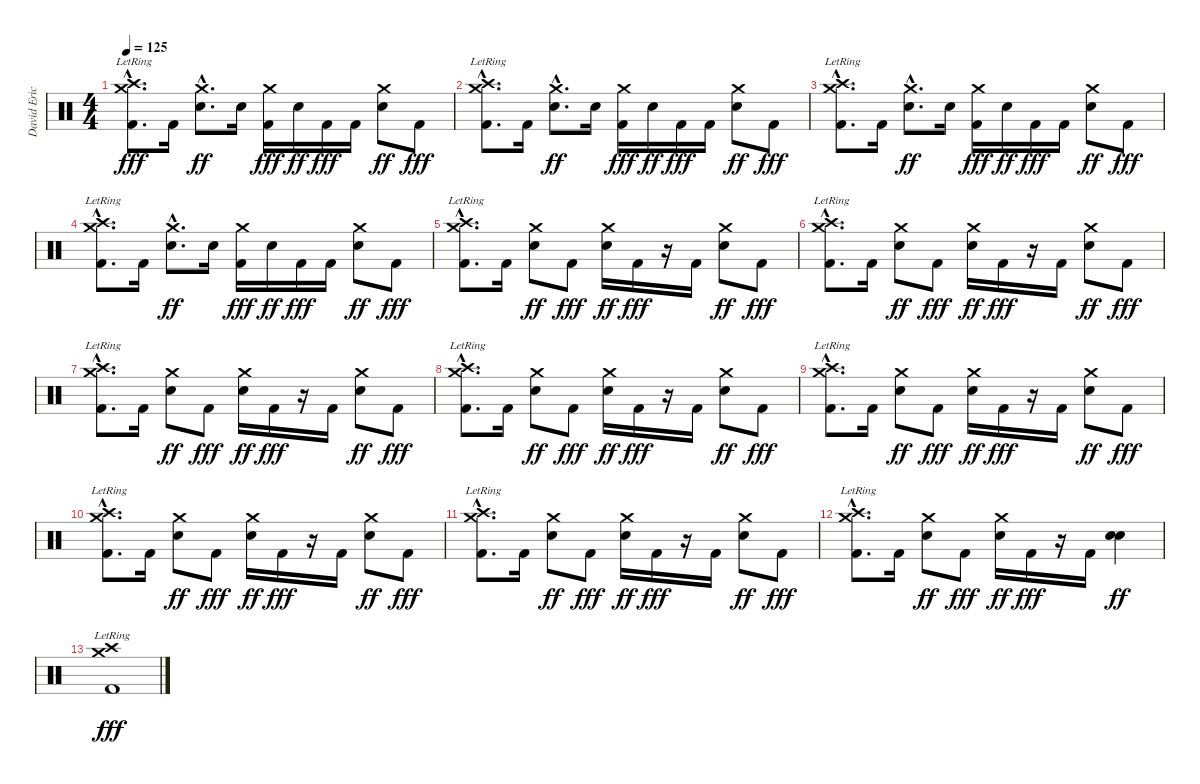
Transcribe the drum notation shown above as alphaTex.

\track ("David Eric Grohl" "David Eric") {instrument percussion}
\staff {score}
\articulation defaults
\ts (4 4)
\tempo 125
\clef neutral
\ks c
("Crash medium (hit)"{hac lr} "Crash high (hit)"{hac lr} "Kick (hit) 2"{hac}).8{d dy fff} "Kick (hit) 2".16 ("Crash medium (hit)"{hac} "Electric Snare (hit)"{hac}).8{d dy ff} "Electric Snare (hit)".16 ("Crash medium (hit)" "Kick (hit) 2").16{dy fff} "Electric Snare (hit)".16{dy ff} "Kick (hit) 2".16{dy fff} "Kick (hit) 2".16 ("Crash medium (hit)" "Electric Snare (hit)").8{dy ff} "Kick (hit) 2".8{dy fff} |
("Crash medium (hit)"{hac lr} "Crash high (hit)"{hac lr} "Kick (hit) 2"{hac}).8{d} "Kick (hit) 2".16 ("Crash medium (hit)"{hac} "Electric Snare (hit)"{hac}).8{d dy ff} "Electric Snare (hit)".16 ("Crash medium (hit)" "Kick (hit) 2").16{dy fff} "Electric Snare (hit)".16{dy ff} "Kick (hit) 2".16{dy fff} "Kick (hit) 2".16 ("Crash medium (hit)" "Electric Snare (hit)").8{dy ff} "Kick (hit) 2".8{dy fff} |
("Crash medium (hit)"{hac lr} "Crash high (hit)"{hac lr} "Kick (hit) 2"{hac}).8{d} "Kick (hit) 2".16 ("Crash medium (hit)"{hac} "Electric Snare (hit)"{hac}).8{d dy ff} "Electric Snare (hit)".16 ("Crash medium (hit)" "Kick (hit) 2").16{dy fff} "Electric Snare (hit)".16{dy ff} "Kick (hit) 2".16{dy fff} "Kick (hit) 2".16 ("Crash medium (hit)" "Electric Snare (hit)").8{dy ff} "Kick (hit) 2".8{dy fff} |
("Crash medium (hit)"{hac lr} "Crash high (hit)"{hac lr} "Kick (hit) 2"{hac}).8{d} "Kick (hit) 2".16 ("Crash medium (hit)"{hac} "Electric Snare (hit)"{hac}).8{d dy ff} "Electric Snare (hit)".16 ("Crash medium (hit)" "Kick (hit) 2").16{dy fff} "Electric Snare (hit)".16{dy ff} "Kick (hit) 2".16{dy fff} "Kick (hit) 2".16 ("Crash medium (hit)" "Electric Snare (hit)").8{dy ff} "Kick (hit) 2".8{dy fff} |
("Crash medium (hit)"{hac lr} "Crash high (hit)"{hac lr} "Kick (hit) 2"{hac}).8{d} "Kick (hit) 2".16 ("Crash medium (hit)" "Electric Snare (hit)").8{dy ff} "Kick (hit) 2".8{dy fff} ("Crash medium (hit)" "Electric Snare (hit)").16{dy ff} "Kick (hit) 2".16{dy fff} r.16 "Kick (hit) 2".16 ("Crash medium (hit)" "Electric Snare (hit)").8{dy ff} "Kick (hit) 2".8{dy fff} |
("Crash medium (hit)"{hac lr} "Crash high (hit)"{hac lr} "Kick (hit) 2"{hac}).8{d} "Kick (hit) 2".16 ("Crash medium (hit)" "Electric Snare (hit)").8{dy ff} "Kick (hit) 2".8{dy fff} ("Crash medium (hit)" "Electric Snare (hit)").16{dy ff} "Kick (hit) 2".16{dy fff} r.16 "Kick (hit) 2".16 ("Crash medium (hit)" "Electric Snare (hit)").8{dy ff} "Kick (hit) 2".8{dy fff} |
("Crash medium (hit)"{hac lr} "Crash high (hit)"{hac lr} "Kick (hit) 2"{hac}).8{d} "Kick (hit) 2".16 ("Crash medium (hit)" "Electric Snare (hit)").8{dy ff} "Kick (hit) 2".8{dy fff} ("Crash medium (hit)" "Electric Snare (hit)").16{dy ff} "Kick (hit) 2".16{dy fff} r.16 "Kick (hit) 2".16 ("Crash medium (hit)" "Electric Snare (hit)").8{dy ff} "Kick (hit) 2".8{dy fff} |
("Crash medium (hit)"{hac lr} "Crash high (hit)"{hac lr} "Kick (hit) 2"{hac}).8{d} "Kick (hit) 2".16 ("Crash medium (hit)" "Electric Snare (hit)").8{dy ff} "Kick (hit) 2".8{dy fff} ("Crash medium (hit)" "Electric Snare (hit)").16{dy ff} "Kick (hit) 2".16{dy fff} r.16 "Kick (hit) 2".16 ("Crash medium (hit)" "Electric Snare (hit)").8{dy ff} "Kick (hit) 2".8{dy fff} |
("Crash medium (hit)"{hac lr} "Crash high (hit)"{hac lr} "Kick (hit) 2"{hac}).8{d} "Kick (hit) 2".16 ("Crash medium (hit)" "Electric Snare (hit)").8{dy ff} "Kick (hit) 2".8{dy fff} ("Crash medium (hit)" "Electric Snare (hit)").16{dy ff} "Kick (hit) 2".16{dy fff} r.16 "Kick (hit) 2".16 ("Crash medium (hit)" "Electric Snare (hit)").8{dy ff} "Kick (hit) 2".8{dy fff} |
("Crash medium (hit)"{hac lr} "Crash high (hit)"{hac lr} "Kick (hit) 2"{hac}).8{d} "Kick (hit) 2".16 ("Crash medium (hit)" "Electric Snare (hit)").8{dy ff} "Kick (hit) 2".8{dy fff} ("Crash medium (hit)" "Electric Snare (hit)").16{dy ff} "Kick (hit) 2".16{dy fff} r.16 "Kick (hit) 2".16 ("Crash medium (hit)" "Electric Snare (hit)").8{dy ff} "Kick (hit) 2".8{dy fff} |
("Crash medium (hit)"{hac lr} "Crash high (hit)"{hac lr} "Kick (hit) 2"{hac}).8{d} "Kick (hit) 2".16 ("Crash medium (hit)" "Electric Snare (hit)").8{dy ff} "Kick (hit) 2".8{dy fff} ("Crash medium (hit)" "Electric Snare (hit)").16{dy ff} "Kick (hit) 2".16{dy fff} r.16 "Kick (hit) 2".16 ("Crash medium (hit)" "Electric Snare (hit)").8{dy ff} "Kick (hit) 2".8{dy fff} |
("Crash medium (hit)"{hac lr} "Crash high (hit)"{hac lr} "Kick (hit) 2"{hac}).8{d} "Kick (hit) 2".16 ("Crash medium (hit)" "Electric Snare (hit)").8{dy ff} "Kick (hit) 2".8{dy fff} ("Crash medium (hit)" "Electric Snare (hit)").16{dy ff} "Kick (hit) 2".16{dy fff} r.16 "Kick (hit) 2".16 ("Electric Snare (hit)" "Electric Snare (hit)").4{dy ff} |
("Crash medium (hit)"{lr} "Crash high (hit)"{lr} "Kick (hit) 2").1{dy fff}
